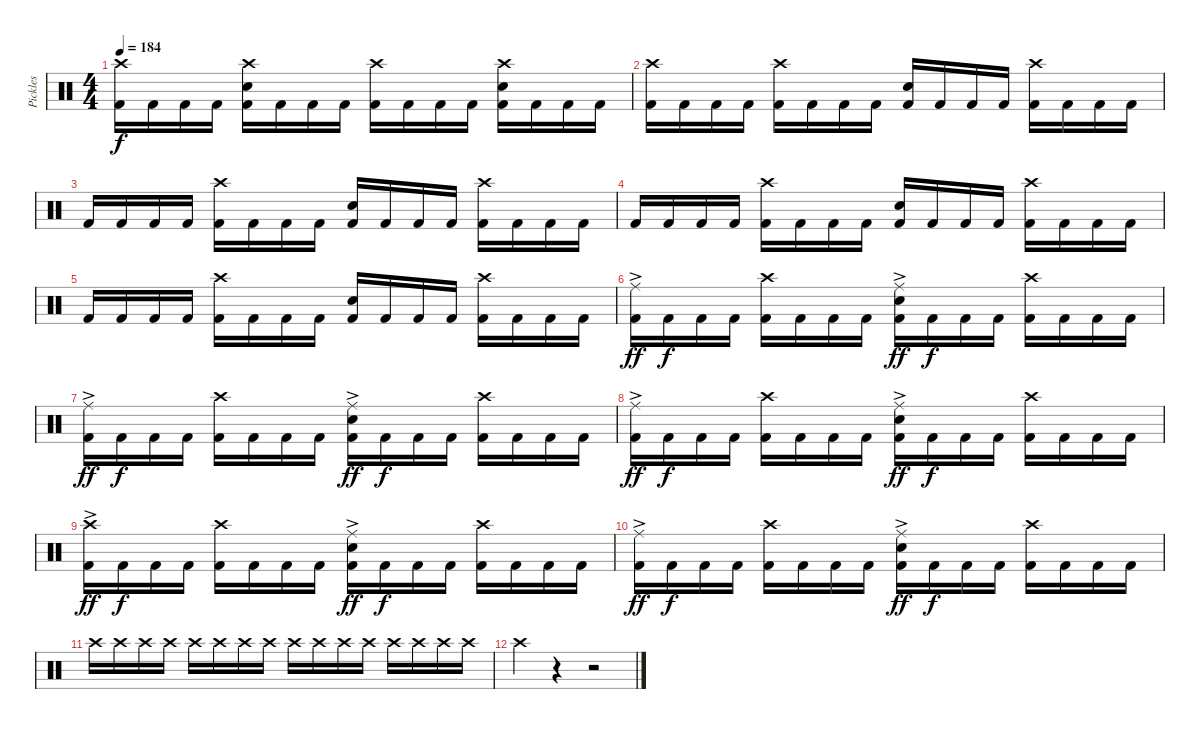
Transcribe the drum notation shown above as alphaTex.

\track ("Pickles" "Pickles") {instrument percussion}
\staff {score}
\articulation defaults
\ts (4 4)
\tempo 184
\clef neutral
\ks aminor
("Crash high (hit)" "Kick (hit) 2").16{dy f} "Kick (hit) 2".16 "Kick (hit) 2".16 "Kick (hit) 2".16 ("Crash high (hit)" "Snare (hit) 2" "Kick (hit) 2").16 "Kick (hit) 2".16 "Kick (hit) 2".16 "Kick (hit) 2".16 ("Crash high (hit)" "Kick (hit) 2").16 "Kick (hit) 2".16 "Kick (hit) 2".16 "Kick (hit) 2".16 ("Crash high (hit)" "Snare (hit) 2" "Kick (hit) 2").16 "Kick (hit) 2".16 "Kick (hit) 2".16 "Kick (hit) 2".16 |
("Crash high (hit)" "Kick (hit) 2").16 "Kick (hit) 2".16 "Kick (hit) 2".16 "Kick (hit) 2".16 ("Crash high (hit)" "Kick (hit) 2").16 "Kick (hit) 2".16 "Kick (hit) 2".16 "Kick (hit) 2".16 ("Snare (hit) 2" "Kick (hit) 2").16 "Kick (hit) 2".16 "Kick (hit) 2".16 "Kick (hit) 2".16 ("Crash high (hit)" "Kick (hit) 2").16 "Kick (hit) 2".16 "Kick (hit) 2".16 "Kick (hit) 2".16 |
"Kick (hit) 2".16 "Kick (hit) 2".16 "Kick (hit) 2".16 "Kick (hit) 2".16 ("Crash high (hit)" "Kick (hit) 2").16 "Kick (hit) 2".16 "Kick (hit) 2".16 "Kick (hit) 2".16 ("Snare (hit) 2" "Kick (hit) 2").16 "Kick (hit) 2".16 "Kick (hit) 2".16 "Kick (hit) 2".16 ("Crash high (hit)" "Kick (hit) 2").16 "Kick (hit) 2".16 "Kick (hit) 2".16 "Kick (hit) 2".16 |
"Kick (hit) 2".16 "Kick (hit) 2".16 "Kick (hit) 2".16 "Kick (hit) 2".16 ("Crash high (hit)" "Kick (hit) 2").16 "Kick (hit) 2".16 "Kick (hit) 2".16 "Kick (hit) 2".16 ("Snare (hit) 2" "Kick (hit) 2").16 "Kick (hit) 2".16 "Kick (hit) 2".16 "Kick (hit) 2".16 ("Crash high (hit)" "Kick (hit) 2").16 "Kick (hit) 2".16 "Kick (hit) 2".16 "Kick (hit) 2".16 |
"Kick (hit) 2".16 "Kick (hit) 2".16 "Kick (hit) 2".16 "Kick (hit) 2".16 ("Crash high (hit)" "Kick (hit) 2").16 "Kick (hit) 2".16 "Kick (hit) 2".16 "Kick (hit) 2".16 ("Snare (hit) 2" "Kick (hit) 2").16 "Kick (hit) 2".16 "Kick (hit) 2".16 "Kick (hit) 2".16 ("Crash high (hit)" "Kick (hit) 2").16 "Kick (hit) 2".16 "Kick (hit) 2".16 "Kick (hit) 2".16 |
("Ride (middle)"{ac} "Kick (hit) 2").16{dy ff} "Kick (hit) 2".16{dy f} "Kick (hit) 2".16 "Kick (hit) 2".16 ("Crash high (hit)" "Kick (hit) 2").16 "Kick (hit) 2".16 "Kick (hit) 2".16 "Kick (hit) 2".16 ("Ride (middle)"{ac} "Snare (hit) 2" "Kick (hit) 2").16{dy ff} "Kick (hit) 2".16{dy f} "Kick (hit) 2".16 "Kick (hit) 2".16 ("Crash high (hit)" "Kick (hit) 2").16 "Kick (hit) 2".16 "Kick (hit) 2".16 "Kick (hit) 2".16 |
("Ride (middle)"{ac} "Kick (hit) 2").16{dy ff} "Kick (hit) 2".16{dy f} "Kick (hit) 2".16 "Kick (hit) 2".16 ("Crash high (hit)" "Kick (hit) 2").16 "Kick (hit) 2".16 "Kick (hit) 2".16 "Kick (hit) 2".16 ("Ride (middle)"{ac} "Snare (hit) 2" "Kick (hit) 2").16{dy ff} "Kick (hit) 2".16{dy f} "Kick (hit) 2".16 "Kick (hit) 2".16 ("Crash high (hit)" "Kick (hit) 2").16 "Kick (hit) 2".16 "Kick (hit) 2".16 "Kick (hit) 2".16 |
("Ride (middle)"{ac} "Kick (hit) 2").16{dy ff} "Kick (hit) 2".16{dy f} "Kick (hit) 2".16 "Kick (hit) 2".16 ("Crash high (hit)" "Kick (hit) 2").16 "Kick (hit) 2".16 "Kick (hit) 2".16 "Kick (hit) 2".16 ("Ride (middle)"{ac} "Snare (hit) 2" "Kick (hit) 2").16{dy ff} "Kick (hit) 2".16{dy f} "Kick (hit) 2".16 "Kick (hit) 2".16 ("Crash high (hit)" "Kick (hit) 2").16 "Kick (hit) 2".16 "Kick (hit) 2".16 "Kick (hit) 2".16 |
("Crash high (hit)"{ac} "Kick (hit) 2").16{dy ff} "Kick (hit) 2".16{dy f} "Kick (hit) 2".16 "Kick (hit) 2".16 ("Crash high (hit)" "Kick (hit) 2").16 "Kick (hit) 2".16 "Kick (hit) 2".16 "Kick (hit) 2".16 ("Ride (middle)"{ac} "Snare (hit) 2" "Kick (hit) 2").16{dy ff} "Kick (hit) 2".16{dy f} "Kick (hit) 2".16 "Kick (hit) 2".16 ("Crash high (hit)" "Kick (hit) 2").16 "Kick (hit) 2".16 "Kick (hit) 2".16 "Kick (hit) 2".16 |
("Ride (middle)"{ac} "Kick (hit) 2").16{dy ff} "Kick (hit) 2".16{dy f} "Kick (hit) 2".16 "Kick (hit) 2".16 ("Crash high (hit)" "Kick (hit) 2").16 "Kick (hit) 2".16 "Kick (hit) 2".16 "Kick (hit) 2".16 ("Ride (middle)"{ac} "Snare (hit) 2" "Kick (hit) 2").16{dy ff} "Kick (hit) 2".16{dy f} "Kick (hit) 2".16 "Kick (hit) 2".16 ("Crash high (hit)" "Kick (hit) 2").16 "Kick (hit) 2".16 "Kick (hit) 2".16 "Kick (hit) 2".16 |
"Crash high (hit)".16 "Crash high (hit)".16 "Crash high (hit)".16 "Crash high (hit)".16 "Crash high (hit)".16 "Crash high (hit)".16 "Crash high (hit)".16 "Crash high (hit)".16 "Crash high (hit)".16 "Crash high (hit)".16 "Crash high (hit)".16 "Crash high (hit)".16 "Crash high (hit)".16 "Crash high (hit)".16 "Crash high (hit)".16 "Crash high (hit)".16 |
"Crash high (hit)".4 r.4 r.2
